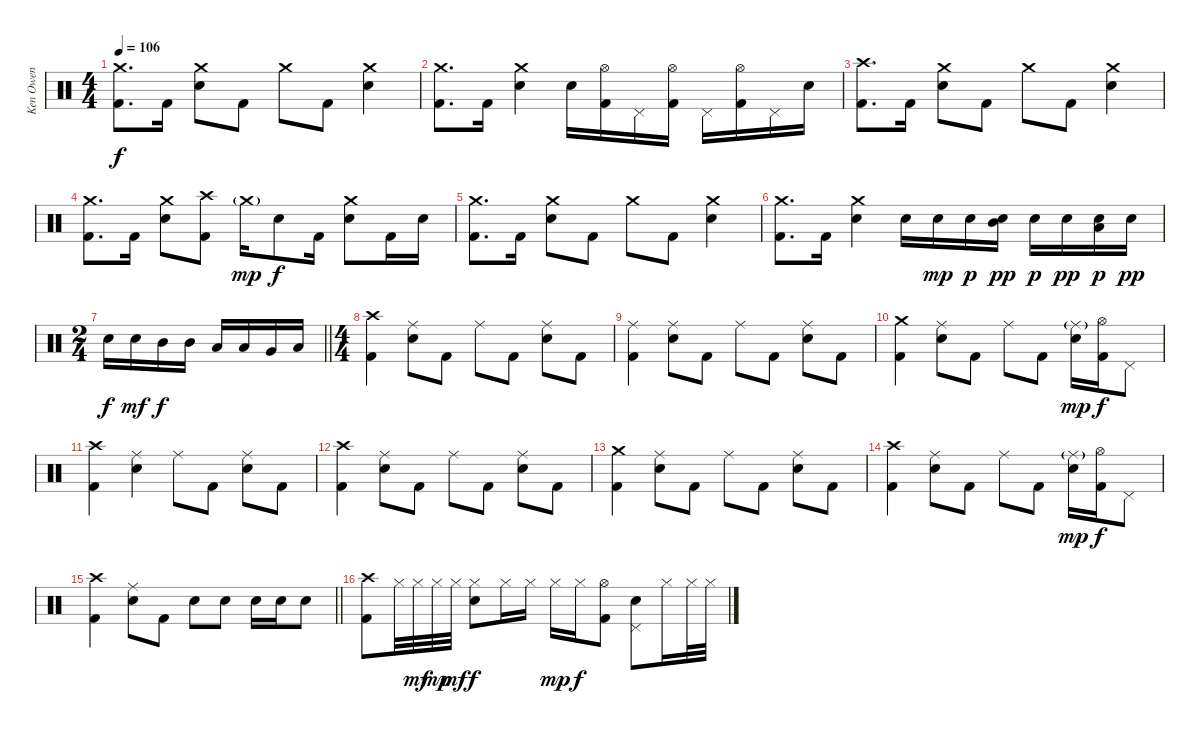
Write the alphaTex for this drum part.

\track ("Ken Owen" "Ken Owen") {instrument percussion}
\staff {score}
\articulation defaults
\ts (4 4)
\tempo 106
\clef neutral
\ks c
("Crash medium (hit)" "Kick (hit) 2").8{d dy f} "Kick (hit) 2".16 ("Crash medium (hit)" "Electric Snare (hit)").8 "Kick (hit) 2".8 "Crash medium (hit)".8 "Kick (hit) 2".8 ("Crash medium (hit)" "Electric Snare (hit)").4 |
("Crash medium (hit)" "Kick (hit) 2").8{d} "Kick (hit) 2".16 ("Crash medium (hit)" "Electric Snare (hit)").4 "Electric Snare (hit)".16 ("Hi-Hat (open)" "Kick (hit) 2").16 "Pedal Hi-Hat (hit)".16 ("Hi-Hat (open)" "Kick (hit) 2").16 "Pedal Hi-Hat (hit)".16 ("Hi-Hat (open)" "Kick (hit) 2").16 "Pedal Hi-Hat (hit)".16 "Electric Snare (hit)".16 |
("Crash high (hit)" "Kick (hit) 2").8{d} "Kick (hit) 2".16 ("Crash medium (hit)" "Electric Snare (hit)").8 "Kick (hit) 2".8 "Crash medium (hit)".8 "Kick (hit) 2".8 ("Crash medium (hit)" "Electric Snare (hit)").4 |
("Crash medium (hit)" "Kick (hit) 2").8{d} "Kick (hit) 2".16 ("Crash medium (hit)" "Electric Snare (hit)").8 ("Crash high (hit)" "Kick (hit) 2").8 "Crash medium (hit)"{g}.16{dy mp} "Electric Snare (hit)".8{dy f} "Kick (hit) 2".16 ("Crash medium (hit)" "Electric Snare (hit)").8 "Kick (hit) 2".16 "Electric Snare (hit)".16 |
("Crash medium (hit)" "Kick (hit) 2").8{d} "Kick (hit) 2".16 ("Crash medium (hit)" "Electric Snare (hit)").8 "Kick (hit) 2".8 "Crash medium (hit)".8 "Kick (hit) 2".8 ("Crash medium (hit)" "Electric Snare (hit)").4 |
("Crash medium (hit)" "Kick (hit) 2").8{d} "Kick (hit) 2".16 ("Crash medium (hit)" "Electric Snare (hit)").4 "Electric Snare (hit)".16 "Electric Snare (hit)".16{dy mp} "Electric Snare (hit)".16{dy p} ("Mid Tom (hit)" "Electric Snare (hit)").16{dy pp} "Electric Snare (hit)".16{dy p} "Electric Snare (hit)".16{dy pp} ("Low Tom (hit)" "Electric Snare (hit)").16{dy p} "Electric Snare (hit)".16{dy pp} |
\ts (2 4)
\barLineRight lightlight "Electric Snare (hit)".16{dy f} "Electric Snare (hit)".16{dy mf} "Mid Tom (hit)".16{dy f} "Mid Tom (hit)".16 "Low Tom (hit)".16 "Low Tom (hit)".16 "Very Low Tom (hit)".16 "Low Floor Tom (hit)".16
|
\ts (4 4)
\section ("" "")
("Crash high (hit)" "Kick (hit) 2").4 ("Ride (middle)" "Electric Snare (hit)").8 "Kick (hit) 2".8 "Ride (middle)".8 "Kick (hit) 2".8 ("Ride (middle)" "Electric Snare (hit)").8 "Kick (hit) 2".8 |
("Ride (middle)" "Kick (hit) 2").4 ("Ride (middle)" "Electric Snare (hit)").8 "Kick (hit) 2".8 "Ride (middle)".8 "Kick (hit) 2".8 ("Ride (middle)" "Electric Snare (hit)").8 "Kick (hit) 2".8 |
("Crash medium (hit)" "Kick (hit) 2").4 ("Ride (middle)" "Electric Snare (hit)").8 "Kick (hit) 2".8 "Ride (middle)".8 "Kick (hit) 2".8 ("Ride (middle)"{g} "Electric Snare (hit)").16{dy mp} ("Hi-Hat (open)" "Kick (hit) 2").16{dy f} "Pedal Hi-Hat (hit)".8 |
("Crash high (hit)" "Kick (hit) 2").4 ("Ride (middle)" "Electric Snare (hit)").4 "Ride (middle)".8 "Kick (hit) 2".8 ("Ride (middle)" "Electric Snare (hit)").8 "Kick (hit) 2".8 |
("Crash high (hit)" "Kick (hit) 2").4 ("Ride (middle)" "Electric Snare (hit)").8 "Kick (hit) 2".8 "Ride (middle)".8 "Kick (hit) 2".8 ("Ride (middle)" "Electric Snare (hit)").8 "Kick (hit) 2".8 |
("Crash medium (hit)" "Kick (hit) 2").4 ("Ride (middle)" "Electric Snare (hit)").8 "Kick (hit) 2".8 "Ride (middle)".8 "Kick (hit) 2".8 ("Ride (middle)" "Electric Snare (hit)").8 "Kick (hit) 2".8 |
("Crash high (hit)" "Kick (hit) 2").4 ("Ride (middle)" "Electric Snare (hit)").8 "Kick (hit) 2".8 "Ride (middle)".8 "Kick (hit) 2".8 ("Ride (middle)"{g} "Electric Snare (hit)").16{dy mp} ("Hi-Hat (open)" "Kick (hit) 2").16{dy f} "Pedal Hi-Hat (hit)".8 |
\barLineRight lightlight
("Crash high (hit)" "Kick (hit) 2").4 ("Ride (middle)" "Electric Snare (hit)").8 "Kick (hit) 2".8 "Electric Snare (hit)".8 "Electric Snare (hit)".8 "Electric Snare (hit)".16 "Electric Snare (hit)".16 "Electric Snare (hit)".8 |
\section ("" "")
("Crash high (hit)" "Kick (hit) 2").8 "Hi-Hat (closed)".32 "Hi-Hat (closed)".32{dy mf} "Hi-Hat (closed)".32{dy mp} "Hi-Hat (closed)".32{dy mf} ("Hi-Hat (closed)" "Electric Snare (hit)").8{dy f} "Hi-Hat (closed)".16 "Hi-Hat (closed)".16 "Hi-Hat (closed)".16{dy mp} "Hi-Hat (closed)".16{dy f} ("Hi-Hat (open)" "Kick (hit) 2").8 ("Pedal Hi-Hat (hit)" "Electric Snare (hit)").8 "Hi-Hat (closed)".16 "Hi-Hat (closed)".32 "Hi-Hat (closed)".32
